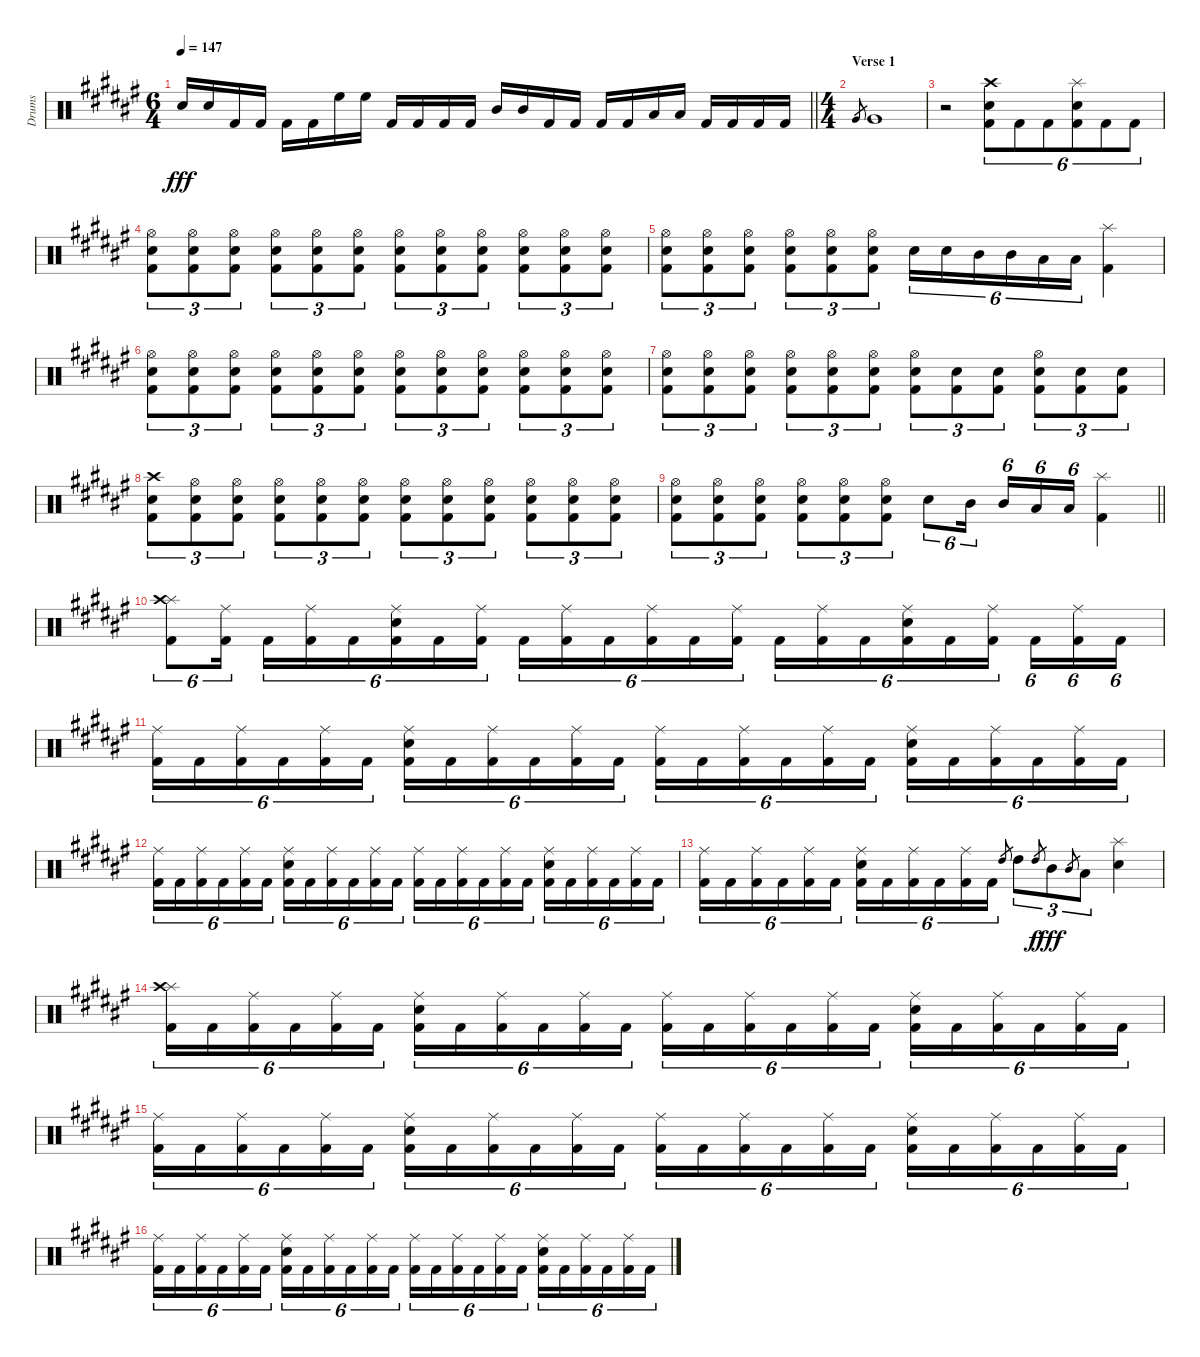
\track ("Drums" "Drums") {instrument percussion}
\staff {score}
\articulation defaults
\ts (6 4)
\tempo 147
\clef neutral
\barLineRight lightlight
\ks d#minor "Snare (hit) 2".16{dy fff} "Snare (hit) 2".16 "Kick (hit) 2".16 "Kick (hit) 2".16 "Kick (hit) 2".16 "Kick (hit) 2".16 "High Floor Tom (hit)".16 "High Floor Tom (hit)".16 "Kick (hit) 2".16 "Kick (hit) 2".16 "Kick (hit) 2".16 "Kick (hit) 2".16 "Mid Tom (hit)".16 "Mid Tom (hit)".16 "Kick (hit) 2".16 "Kick (hit) 2".16 "Kick (hit) 2".16 "Kick (hit) 2".16 "Low Tom (hit)".16 "Low Tom (hit)".16 "Kick (hit) 2".16 "Kick (hit) 2".16 "Kick (hit) 2".16 "Kick (hit) 2".16
|
\ts (4 4)
\section ("" "Verse 1")
"Very Low Tom (hit)".8{gr} "Very Low Tom (hit)".1 |
r.2 ("Crash high (hit)" "Snare (hit) 2" "Kick (hit) 2").8{tu (6 4)} "Kick (hit) 2".8{tu (6 4)} "Kick (hit) 2".8{tu (6 4)} ("Splash (hit)" "Snare (hit) 2" "Kick (hit) 2").8{tu (6 4)} "Kick (hit) 2".8{tu (6 4)} "Kick (hit) 2".8{tu (6 4)} |
("Hi-Hat (open)" "Snare (hit) 2" "Kick (hit) 2").8{tu (3 2)} ("Hi-Hat (open)" "Snare (hit) 2" "Kick (hit) 2").8{tu (3 2)} ("Hi-Hat (open)" "Snare (hit) 2" "Kick (hit) 2").8{tu (3 2)} ("Hi-Hat (open)" "Snare (hit) 2" "Kick (hit) 2").8{tu (3 2)} ("Hi-Hat (open)" "Snare (hit) 2" "Kick (hit) 2").8{tu (3 2)} ("Hi-Hat (open)" "Snare (hit) 2" "Kick (hit) 2").8{tu (3 2)} ("Hi-Hat (open)" "Snare (hit) 2" "Kick (hit) 2").8{tu (3 2)} ("Hi-Hat (open)" "Snare (hit) 2" "Kick (hit) 2").8{tu (3 2)} ("Hi-Hat (open)" "Snare (hit) 2" "Kick (hit) 2").8{tu (3 2)} ("Hi-Hat (open)" "Snare (hit) 2" "Kick (hit) 2").8{tu (3 2)} ("Hi-Hat (open)" "Snare (hit) 2" "Kick (hit) 2").8{tu (3 2)} ("Hi-Hat (open)" "Snare (hit) 2" "Kick (hit) 2").8{tu (3 2)} |
("Hi-Hat (open)" "Snare (hit) 2" "Kick (hit) 2").8{tu (3 2)} ("Hi-Hat (open)" "Snare (hit) 2" "Kick (hit) 2").8{tu (3 2)} ("Hi-Hat (open)" "Snare (hit) 2" "Kick (hit) 2").8{tu (3 2)} ("Hi-Hat (open)" "Snare (hit) 2" "Kick (hit) 2").8{tu (3 2)} ("Hi-Hat (open)" "Snare (hit) 2" "Kick (hit) 2").8{tu (3 2)} ("Hi-Hat (open)" "Snare (hit) 2" "Kick (hit) 2").8{tu (3 2)} "Snare (hit) 2".16{tu (6 4)} "Snare (hit) 2".16{tu (6 4)} "Mid Tom (hit)".16{tu (6 4)} "Mid Tom (hit)".16{tu (6 4)} "Low Tom (hit)".16{tu (6 4)} "Low Tom (hit)".16{tu (6 4)} ("Splash (hit)" "Kick (hit) 2").4 |
("Hi-Hat (open)" "Snare (hit) 2" "Kick (hit) 2").8{tu (3 2)} ("Hi-Hat (open)" "Snare (hit) 2" "Kick (hit) 2").8{tu (3 2)} ("Hi-Hat (open)" "Snare (hit) 2" "Kick (hit) 2").8{tu (3 2)} ("Hi-Hat (open)" "Snare (hit) 2" "Kick (hit) 2").8{tu (3 2)} ("Hi-Hat (open)" "Snare (hit) 2" "Kick (hit) 2").8{tu (3 2)} ("Hi-Hat (open)" "Snare (hit) 2" "Kick (hit) 2").8{tu (3 2)} ("Hi-Hat (open)" "Snare (hit) 2" "Kick (hit) 2").8{tu (3 2)} ("Hi-Hat (open)" "Snare (hit) 2" "Kick (hit) 2").8{tu (3 2)} ("Hi-Hat (open)" "Snare (hit) 2" "Kick (hit) 2").8{tu (3 2)} ("Hi-Hat (open)" "Snare (hit) 2" "Kick (hit) 2").8{tu (3 2)} ("Hi-Hat (open)" "Snare (hit) 2" "Kick (hit) 2").8{tu (3 2)} ("Hi-Hat (open)" "Snare (hit) 2" "Kick (hit) 2").8{tu (3 2)} |
("Hi-Hat (open)" "Snare (hit) 2" "Kick (hit) 2").8{tu (3 2)} ("Hi-Hat (open)" "Snare (hit) 2" "Kick (hit) 2").8{tu (3 2)} ("Hi-Hat (open)" "Snare (hit) 2" "Kick (hit) 2").8{tu (3 2)} ("Hi-Hat (open)" "Snare (hit) 2" "Kick (hit) 2").8{tu (3 2)} ("Hi-Hat (open)" "Snare (hit) 2" "Kick (hit) 2").8{tu (3 2)} ("Hi-Hat (open)" "Snare (hit) 2" "Kick (hit) 2").8{tu (3 2)} ("Hi-Hat (open)" "Snare (hit) 2" "Kick (hit) 2").8{tu (3 2)} ("Snare (hit) 2" "Kick (hit) 2").8{tu (3 2)} ("Snare (hit) 2" "Kick (hit) 2").8{tu (3 2)} ("Hi-Hat (open)" "Snare (hit) 2" "Kick (hit) 2").8{tu (3 2)} ("Snare (hit) 2" "Kick (hit) 2").8{tu (3 2)} ("Snare (hit) 2" "Kick (hit) 2").8{tu (3 2)} |
("Crash high (hit)" "Snare (hit) 2" "Kick (hit) 2").8{tu (3 2)} ("Hi-Hat (open)" "Snare (hit) 2" "Kick (hit) 2").8{tu (3 2)} ("Hi-Hat (open)" "Snare (hit) 2" "Kick (hit) 2").8{tu (3 2)} ("Hi-Hat (open)" "Snare (hit) 2" "Kick (hit) 2").8{tu (3 2)} ("Hi-Hat (open)" "Snare (hit) 2" "Kick (hit) 2").8{tu (3 2)} ("Hi-Hat (open)" "Snare (hit) 2" "Kick (hit) 2").8{tu (3 2)} ("Hi-Hat (open)" "Snare (hit) 2" "Kick (hit) 2").8{tu (3 2)} ("Hi-Hat (open)" "Snare (hit) 2" "Kick (hit) 2").8{tu (3 2)} ("Hi-Hat (open)" "Snare (hit) 2" "Kick (hit) 2").8{tu (3 2)} ("Hi-Hat (open)" "Snare (hit) 2" "Kick (hit) 2").8{tu (3 2)} ("Hi-Hat (open)" "Snare (hit) 2" "Kick (hit) 2").8{tu (3 2)} ("Hi-Hat (open)" "Snare (hit) 2" "Kick (hit) 2").8{tu (3 2)} |
\barLineRight lightlight
("Hi-Hat (open)" "Snare (hit) 2" "Kick (hit) 2").8{tu (3 2)} ("Hi-Hat (open)" "Snare (hit) 2" "Kick (hit) 2").8{tu (3 2)} ("Hi-Hat (open)" "Snare (hit) 2" "Kick (hit) 2").8{tu (3 2)} ("Hi-Hat (open)" "Snare (hit) 2" "Kick (hit) 2").8{tu (3 2)} ("Hi-Hat (open)" "Snare (hit) 2" "Kick (hit) 2").8{tu (3 2)} ("Hi-Hat (open)" "Snare (hit) 2" "Kick (hit) 2").8{tu (3 2)} "Snare (hit) 2".8{tu (6 4)} "Mid Tom (hit)".16{tu (6 4)} "Mid Tom (hit)".16{tu (6 4)} "Low Tom (hit)".16{tu (6 4)} "Low Tom (hit)".16{tu (6 4)} ("Splash (hit)" "Kick (hit) 2").4 |
\section ("" "")
("Splash (hit)" "Crash high (hit)" "Kick (hit) 2").8{tu (6 4)} ("Ride (middle)" "Kick (hit) 2").16{tu (6 4)} "Kick (hit) 2".16{tu (6 4)} ("Ride (middle)" "Kick (hit) 2").16{tu (6 4)} "Kick (hit) 2".16{tu (6 4)} ("Ride (middle)" "Snare (hit) 2" "Kick (hit) 2").16{tu (6 4)} "Kick (hit) 2".16{tu (6 4)} ("Ride (middle)" "Kick (hit) 2").16{tu (6 4)} "Kick (hit) 2".16{tu (6 4)} ("Ride (middle)" "Kick (hit) 2").16{tu (6 4)} "Kick (hit) 2".16{tu (6 4)} ("Ride (middle)" "Kick (hit) 2").16{tu (6 4)} "Kick (hit) 2".16{tu (6 4)} ("Ride (middle)" "Kick (hit) 2").16{tu (6 4)} "Kick (hit) 2".16{tu (6 4)} ("Ride (middle)" "Kick (hit) 2").16{tu (6 4)} "Kick (hit) 2".16{tu (6 4)} ("Ride (middle)" "Snare (hit) 2" "Kick (hit) 2").16{tu (6 4)} "Kick (hit) 2".16{tu (6 4)} ("Ride (middle)" "Kick (hit) 2").16{tu (6 4)} "Kick (hit) 2".16{tu (6 4)} ("Ride (middle)" "Kick (hit) 2").16{tu (6 4)} "Kick (hit) 2".16{tu (6 4)} |
("Ride (middle)" "Kick (hit) 2").16{tu (6 4)} "Kick (hit) 2".16{tu (6 4)} ("Ride (middle)" "Kick (hit) 2").16{tu (6 4)} "Kick (hit) 2".16{tu (6 4)} ("Ride (middle)" "Kick (hit) 2").16{tu (6 4)} "Kick (hit) 2".16{tu (6 4)} ("Ride (middle)" "Snare (hit) 2" "Kick (hit) 2").16{tu (6 4)} "Kick (hit) 2".16{tu (6 4)} ("Ride (middle)" "Kick (hit) 2").16{tu (6 4)} "Kick (hit) 2".16{tu (6 4)} ("Ride (middle)" "Kick (hit) 2").16{tu (6 4)} "Kick (hit) 2".16{tu (6 4)} ("Ride (middle)" "Kick (hit) 2").16{tu (6 4)} "Kick (hit) 2".16{tu (6 4)} ("Ride (middle)" "Kick (hit) 2").16{tu (6 4)} "Kick (hit) 2".16{tu (6 4)} ("Ride (middle)" "Kick (hit) 2").16{tu (6 4)} "Kick (hit) 2".16{tu (6 4)} ("Ride (middle)" "Snare (hit) 2" "Kick (hit) 2").16{tu (6 4)} "Kick (hit) 2".16{tu (6 4)} ("Ride (middle)" "Kick (hit) 2").16{tu (6 4)} "Kick (hit) 2".16{tu (6 4)} ("Ride (middle)" "Kick (hit) 2").16{tu (6 4)} "Kick (hit) 2".16{tu (6 4)} |
("Ride (middle)" "Kick (hit) 2").16{tu (6 4)} "Kick (hit) 2".16{tu (6 4)} ("Ride (middle)" "Kick (hit) 2").16{tu (6 4)} "Kick (hit) 2".16{tu (6 4)} ("Ride (middle)" "Kick (hit) 2").16{tu (6 4)} "Kick (hit) 2".16{tu (6 4)} ("Ride (middle)" "Snare (hit) 2" "Kick (hit) 2").16{tu (6 4)} "Kick (hit) 2".16{tu (6 4)} ("Ride (middle)" "Kick (hit) 2").16{tu (6 4)} "Kick (hit) 2".16{tu (6 4)} ("Ride (middle)" "Kick (hit) 2").16{tu (6 4)} "Kick (hit) 2".16{tu (6 4)} ("Ride (middle)" "Kick (hit) 2").16{tu (6 4)} "Kick (hit) 2".16{tu (6 4)} ("Ride (middle)" "Kick (hit) 2").16{tu (6 4)} "Kick (hit) 2".16{tu (6 4)} ("Ride (middle)" "Kick (hit) 2").16{tu (6 4)} "Kick (hit) 2".16{tu (6 4)} ("Ride (middle)" "Snare (hit) 2" "Kick (hit) 2").16{tu (6 4)} "Kick (hit) 2".16{tu (6 4)} ("Ride (middle)" "Kick (hit) 2").16{tu (6 4)} "Kick (hit) 2".16{tu (6 4)} ("Ride (middle)" "Kick (hit) 2").16{tu (6 4)} "Kick (hit) 2".16{tu (6 4)} |
("Ride (middle)" "Kick (hit) 2").16{tu (6 4)} "Kick (hit) 2".16{tu (6 4)} ("Ride (middle)" "Kick (hit) 2").16{tu (6 4)} "Kick (hit) 2".16{tu (6 4)} ("Ride (middle)" "Kick (hit) 2").16{tu (6 4)} "Kick (hit) 2".16{tu (6 4)} ("Ride (middle)" "Snare (hit) 2" "Kick (hit) 2").16{tu (6 4)} "Kick (hit) 2".16{tu (6 4)} ("Ride (middle)" "Kick (hit) 2").16{tu (6 4)} "Kick (hit) 2".16{tu (6 4)} ("Ride (middle)" "Kick (hit) 2").16{tu (6 4)} "Kick (hit) 2".16{tu (6 4)} "High Tom (hit)".8{gr} "High Tom (hit)".8{tu (3 2)} "High Tom (hit)".8{gr dy f} "Mid Tom (hit)".8{tu (3 2) dy fff} "Mid Tom (hit)".8{gr} "Low Tom (hit)".8{tu (3 2)} ("Splash (hit)" "Snare (hit) 2").4 |
("Splash (hit)" "Crash high (hit)" "Kick (hit) 2").16{tu (6 4)} "Kick (hit) 2".16{tu (6 4)} ("Ride (middle)" "Kick (hit) 2").16{tu (6 4)} "Kick (hit) 2".16{tu (6 4)} ("Ride (middle)" "Kick (hit) 2").16{tu (6 4)} "Kick (hit) 2".16{tu (6 4)} ("Ride (middle)" "Snare (hit) 2" "Kick (hit) 2").16{tu (6 4)} "Kick (hit) 2".16{tu (6 4)} ("Ride (middle)" "Kick (hit) 2").16{tu (6 4)} "Kick (hit) 2".16{tu (6 4)} ("Ride (middle)" "Kick (hit) 2").16{tu (6 4)} "Kick (hit) 2".16{tu (6 4)} ("Ride (middle)" "Kick (hit) 2").16{tu (6 4)} "Kick (hit) 2".16{tu (6 4)} ("Ride (middle)" "Kick (hit) 2").16{tu (6 4)} "Kick (hit) 2".16{tu (6 4)} ("Ride (middle)" "Kick (hit) 2").16{tu (6 4)} "Kick (hit) 2".16{tu (6 4)} ("Ride (middle)" "Snare (hit) 2" "Kick (hit) 2").16{tu (6 4)} "Kick (hit) 2".16{tu (6 4)} ("Ride (middle)" "Kick (hit) 2").16{tu (6 4)} "Kick (hit) 2".16{tu (6 4)} ("Ride (middle)" "Kick (hit) 2").16{tu (6 4)} "Kick (hit) 2".16{tu (6 4)} |
("Ride (middle)" "Kick (hit) 2").16{tu (6 4)} "Kick (hit) 2".16{tu (6 4)} ("Ride (middle)" "Kick (hit) 2").16{tu (6 4)} "Kick (hit) 2".16{tu (6 4)} ("Ride (middle)" "Kick (hit) 2").16{tu (6 4)} "Kick (hit) 2".16{tu (6 4)} ("Ride (middle)" "Snare (hit) 2" "Kick (hit) 2").16{tu (6 4)} "Kick (hit) 2".16{tu (6 4)} ("Ride (middle)" "Kick (hit) 2").16{tu (6 4)} "Kick (hit) 2".16{tu (6 4)} ("Ride (middle)" "Kick (hit) 2").16{tu (6 4)} "Kick (hit) 2".16{tu (6 4)} ("Ride (middle)" "Kick (hit) 2").16{tu (6 4)} "Kick (hit) 2".16{tu (6 4)} ("Ride (middle)" "Kick (hit) 2").16{tu (6 4)} "Kick (hit) 2".16{tu (6 4)} ("Ride (middle)" "Kick (hit) 2").16{tu (6 4)} "Kick (hit) 2".16{tu (6 4)} ("Ride (middle)" "Snare (hit) 2" "Kick (hit) 2").16{tu (6 4)} "Kick (hit) 2".16{tu (6 4)} ("Ride (middle)" "Kick (hit) 2").16{tu (6 4)} "Kick (hit) 2".16{tu (6 4)} ("Ride (middle)" "Kick (hit) 2").16{tu (6 4)} "Kick (hit) 2".16{tu (6 4)} |
("Ride (middle)" "Kick (hit) 2").16{tu (6 4)} "Kick (hit) 2".16{tu (6 4)} ("Ride (middle)" "Kick (hit) 2").16{tu (6 4)} "Kick (hit) 2".16{tu (6 4)} ("Ride (middle)" "Kick (hit) 2").16{tu (6 4)} "Kick (hit) 2".16{tu (6 4)} ("Ride (middle)" "Snare (hit) 2" "Kick (hit) 2").16{tu (6 4)} "Kick (hit) 2".16{tu (6 4)} ("Ride (middle)" "Kick (hit) 2").16{tu (6 4)} "Kick (hit) 2".16{tu (6 4)} ("Ride (middle)" "Kick (hit) 2").16{tu (6 4)} "Kick (hit) 2".16{tu (6 4)} ("Ride (middle)" "Kick (hit) 2").16{tu (6 4)} "Kick (hit) 2".16{tu (6 4)} ("Ride (middle)" "Kick (hit) 2").16{tu (6 4)} "Kick (hit) 2".16{tu (6 4)} ("Ride (middle)" "Kick (hit) 2").16{tu (6 4)} "Kick (hit) 2".16{tu (6 4)} ("Ride (middle)" "Snare (hit) 2" "Kick (hit) 2").16{tu (6 4)} "Kick (hit) 2".16{tu (6 4)} ("Ride (middle)" "Kick (hit) 2").16{tu (6 4)} "Kick (hit) 2".16{tu (6 4)} ("Ride (middle)" "Kick (hit) 2").16{tu (6 4)} "Kick (hit) 2".16{tu (6 4)}
